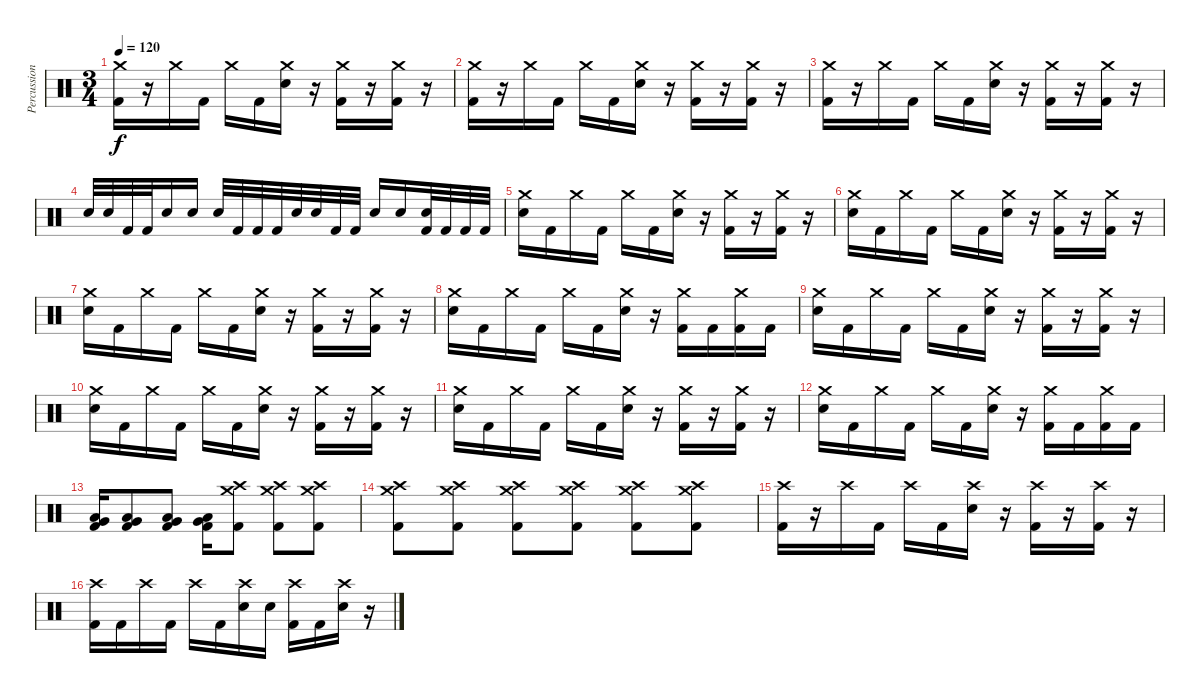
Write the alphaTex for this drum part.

\track ("Percussion" "Percussion") {instrument percussion}
\staff {score}
\articulation defaults
\ts (3 4)
\tempo 120
\clef neutral
\ks c
("Crash medium (hit)" "Kick (hit) 2").16{dy f} r.16 "Crash medium (hit)".16 "Kick (hit) 2".16 "Crash medium (hit)".16 "Kick (hit) 2".16 ("Crash medium (hit)" "Electric Snare (hit)").16 r.16 ("Crash medium (hit)" "Kick (hit) 2").16 r.16 ("Crash medium (hit)" "Kick (hit) 2").16 r.16 |
("Crash medium (hit)" "Kick (hit) 2").16 r.16 "Crash medium (hit)".16 "Kick (hit) 2".16 "Crash medium (hit)".16 "Kick (hit) 2".16 ("Crash medium (hit)" "Electric Snare (hit)").16 r.16 ("Crash medium (hit)" "Kick (hit) 2").16 r.16 ("Crash medium (hit)" "Kick (hit) 2").16 r.16 |
("Crash medium (hit)" "Kick (hit) 2").16 r.16 "Crash medium (hit)".16 "Kick (hit) 2".16 "Crash medium (hit)".16 "Kick (hit) 2".16 ("Crash medium (hit)" "Electric Snare (hit)").16 r.16 ("Crash medium (hit)" "Kick (hit) 2").16 r.16 ("Crash medium (hit)" "Kick (hit) 2").16 r.16 |
"Electric Snare (hit)".32 "Electric Snare (hit)".32 "Kick (hit) 2".32 "Kick (hit) 2".32 "Electric Snare (hit)".16 "Electric Snare (hit)".16 "Electric Snare (hit)".32 "Kick (hit) 2".32 "Kick (hit) 2".32 "Kick (hit) 2".32 "Electric Snare (hit)".32 "Electric Snare (hit)".32 "Kick (hit) 2".32 "Kick (hit) 2".32 "Electric Snare (hit)".16 "Electric Snare (hit)".16 ("Electric Snare (hit)" "Kick (hit) 2").32 "Kick (hit) 2".32 "Kick (hit) 2".32 "Kick (hit) 2".32 |
("Crash medium (hit)" "Electric Snare (hit)").16 "Kick (hit) 2".16 "Crash medium (hit)".16 "Kick (hit) 2".16 "Crash medium (hit)".16 "Kick (hit) 2".16 ("Crash medium (hit)" "Electric Snare (hit)").16 r.16 ("Crash medium (hit)" "Kick (hit) 2").16 r.16 ("Crash medium (hit)" "Kick (hit) 2").16 r.16 |
("Crash medium (hit)" "Electric Snare (hit)").16 "Kick (hit) 2".16 "Crash medium (hit)".16 "Kick (hit) 2".16 "Crash medium (hit)".16 "Kick (hit) 2".16 ("Crash medium (hit)" "Electric Snare (hit)").16 r.16 ("Crash medium (hit)" "Kick (hit) 2").16 r.16 ("Crash medium (hit)" "Kick (hit) 2").16 r.16 |
("Crash medium (hit)" "Electric Snare (hit)").16 "Kick (hit) 2".16 "Crash medium (hit)".16 "Kick (hit) 2".16 "Crash medium (hit)".16 "Kick (hit) 2".16 ("Crash medium (hit)" "Electric Snare (hit)").16 r.16 ("Crash medium (hit)" "Kick (hit) 2").16 r.16 ("Crash medium (hit)" "Kick (hit) 2").16 r.16 |
("Crash medium (hit)" "Electric Snare (hit)").16 "Kick (hit) 2".16 "Crash medium (hit)".16 "Kick (hit) 2".16 "Crash medium (hit)".16 "Kick (hit) 2".16 ("Crash medium (hit)" "Electric Snare (hit)").16 r.16 ("Crash medium (hit)" "Kick (hit) 2").16 "Kick (hit) 2".16 ("Crash medium (hit)" "Kick (hit) 2").16 "Kick (hit) 2".16 |
("Crash medium (hit)" "Electric Snare (hit)").16 "Kick (hit) 2".16 "Crash medium (hit)".16 "Kick (hit) 2".16 "Crash medium (hit)".16 "Kick (hit) 2".16 ("Crash medium (hit)" "Electric Snare (hit)").16 r.16 ("Crash medium (hit)" "Kick (hit) 2").16 r.16 ("Crash medium (hit)" "Kick (hit) 2").16 r.16 |
("Crash medium (hit)" "Electric Snare (hit)").16 "Kick (hit) 2".16 "Crash medium (hit)".16 "Kick (hit) 2".16 "Crash medium (hit)".16 "Kick (hit) 2".16 ("Crash medium (hit)" "Electric Snare (hit)").16 r.16 ("Crash medium (hit)" "Kick (hit) 2").16 r.16 ("Crash medium (hit)" "Kick (hit) 2").16 r.16 |
("Crash medium (hit)" "Electric Snare (hit)").16 "Kick (hit) 2".16 "Crash medium (hit)".16 "Kick (hit) 2".16 "Crash medium (hit)".16 "Kick (hit) 2".16 ("Crash medium (hit)" "Electric Snare (hit)").16 r.16 ("Crash medium (hit)" "Kick (hit) 2").16 r.16 ("Crash medium (hit)" "Kick (hit) 2").16 r.16 |
("Crash medium (hit)" "Electric Snare (hit)").16 "Kick (hit) 2".16 "Crash medium (hit)".16 "Kick (hit) 2".16 "Crash medium (hit)".16 "Kick (hit) 2".16 ("Crash medium (hit)" "Electric Snare (hit)").16 r.16 ("Crash medium (hit)" "Kick (hit) 2").16 "Kick (hit) 2".16 ("Crash medium (hit)" "Kick (hit) 2").16 "Kick (hit) 2".16 |
("Very Low Tom (hit)" "Low Floor Tom (hit)" "Kick (hit) 2").16 ("Very Low Tom (hit)" "Low Floor Tom (hit)" "Kick (hit) 2").8 ("Very Low Tom (hit)" "Low Floor Tom (hit)" "Kick (hit) 2").8 ("Very Low Tom (hit)" "Low Floor Tom (hit)" "Kick (hit) 2").16 ("Crash medium (hit)" "Crash high (hit)" "Kick (hit) 2").8 ("Crash medium (hit)" "Crash high (hit)" "Kick (hit) 2").8 ("Crash medium (hit)" "Crash high (hit)" "Kick (hit) 2").8 |
("Crash medium (hit)" "Crash high (hit)" "Kick (hit) 2").8 ("Crash medium (hit)" "Crash high (hit)" "Kick (hit) 2").8 ("Crash medium (hit)" "Crash high (hit)" "Kick (hit) 2").8 ("Crash medium (hit)" "Crash high (hit)" "Kick (hit) 2").8 ("Crash medium (hit)" "Crash high (hit)" "Kick (hit) 2").8 ("Crash medium (hit)" "Crash high (hit)" "Kick (hit) 2").8 |
("Crash high (hit)" "Kick (hit) 2").16 r.16 "Crash high (hit)".16 "Kick (hit) 2".16 "Crash high (hit)".16 "Kick (hit) 2".16 ("Crash high (hit)" "Electric Snare (hit)").16 r.16 ("Crash high (hit)" "Kick (hit) 2").16 r.16 ("Crash high (hit)" "Kick (hit) 2").16 r.16 |
("Crash high (hit)" "Kick (hit) 2").16 "Kick (hit) 2".16 "Crash high (hit)".16 "Kick (hit) 2".16 "Crash high (hit)".16 "Kick (hit) 2".16 ("Crash high (hit)" "Electric Snare (hit)").16 "Electric Snare (hit)".16 ("Crash high (hit)" "Kick (hit) 2").16 "Kick (hit) 2".16 ("Crash high (hit)" "Electric Snare (hit)").16 r.16
